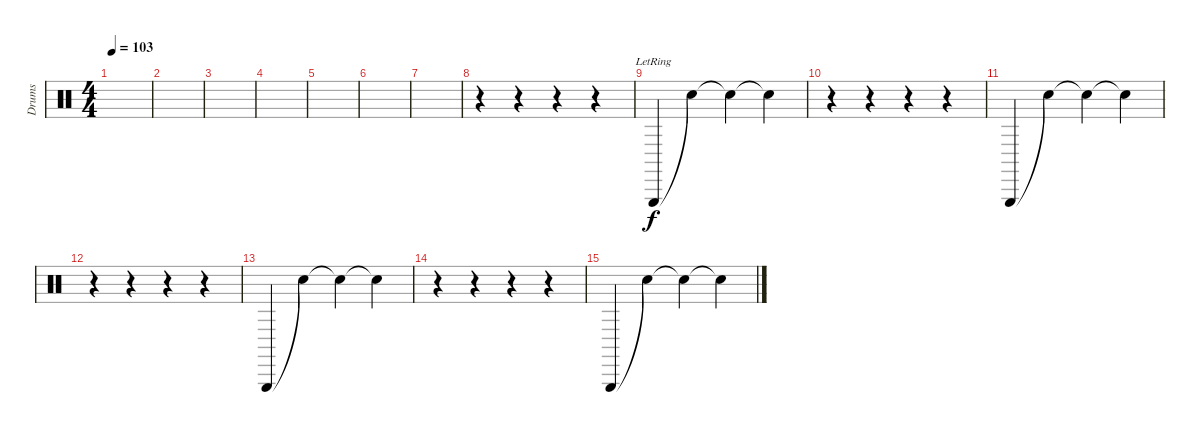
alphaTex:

\track ("Drums" "Drums") {instrument percussion}
\staff {score}
\articulation defaults
\ts (4 4)
\tempo 103
\clef neutral
\ks c
|
|
|
|
|
|
|
r.4 r.4 r.4 r.4 |
"Triangle (hit)"{lr}.4 "Snare (hit)"{t}.4{dy f} "Snare (hit)"{t}.4 "Snare (hit)"{t}.4 |
r.4 r.4 r.4 r.4 |
"Triangle (hit)".4 "Snare (hit)"{t}.4 "Snare (hit)"{t}.4 "Snare (hit)"{t}.4 |
r.4 r.4 r.4 r.4 |
"Triangle (hit)".4 "Snare (hit)"{t}.4 "Snare (hit)"{t}.4 "Snare (hit)"{t}.4 |
r.4 r.4 r.4 r.4 |
"Triangle (hit)".4 "Snare (hit)"{t}.4 "Snare (hit)"{t}.4 "Snare (hit)"{t}.4
